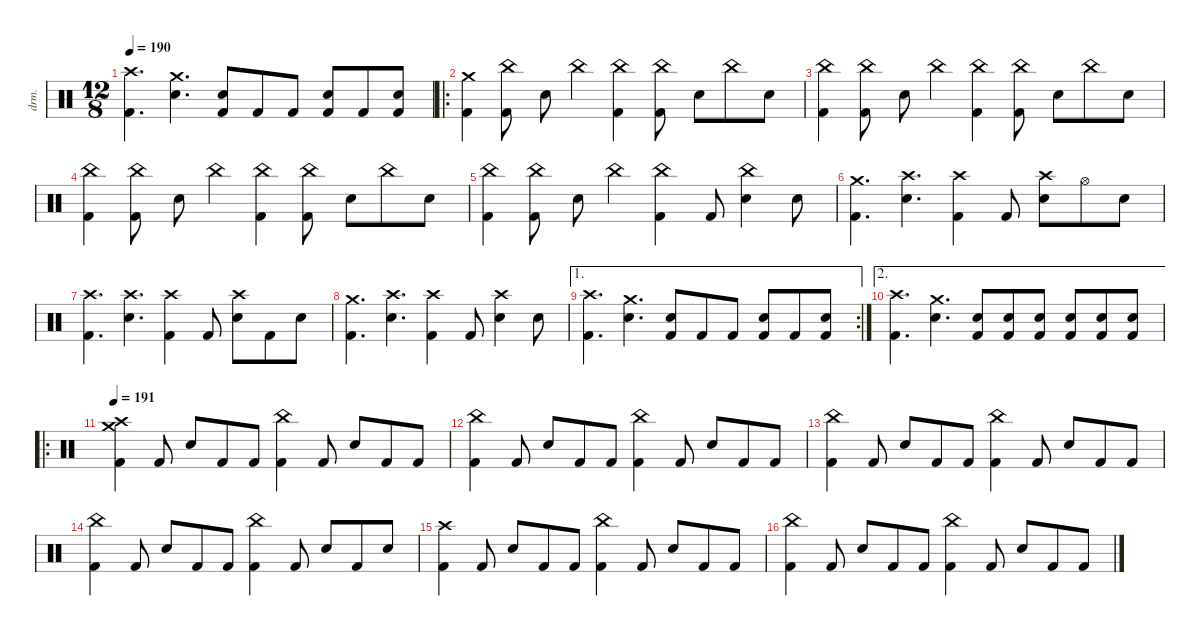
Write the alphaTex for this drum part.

\defaultSystemsLayout 4
\hideDynamics
\bracketExtendMode nobrackets
\otherSystemsTrackNameOrientation horizontal
\track ("Drums" "drm.") {defaultSystemsLayout 4 instrument percussion}
\staff {score}
\articulation defaults
\ts (12 8)
\tempo 190
\clef neutral
\ks c
("Crash high (hit)" "Kick (hit) 2").4{d dy f beam Down} ("Crash medium (hit)" "Snare (hit) 2").4{d beam Down} ("Snare (hit) 2" "Kick (hit) 2").8{beam Up} "Kick (hit) 2".8{beam Up} "Kick (hit) 2".8{beam Up} ("Snare (hit) 2" "Kick (hit) 2").8{beam Up} "Kick (hit) 2".8{beam Up} ("Snare (hit) 2" "Kick (hit) 2").8{beam Up} |
\ro
("Crash medium (hit)" "Kick (hit) 2").4{beam Down} ("China (hit)" "Kick (hit) 2").8{beam Down} "Snare (hit) 2".8{beam Down} "China (hit)".4{beam Down} ("China (hit)" "Kick (hit) 2").4{beam Down} ("China (hit)" "Kick (hit) 2").8{beam Down} "Snare (hit) 2".8{beam Down} "China (hit)".8{beam Down} "Snare (hit) 2".8{beam Down} |
("China (hit)" "Kick (hit) 2").4{beam Down} ("China (hit)" "Kick (hit) 2").8{beam Down} "Snare (hit) 2".8{beam Down} "China (hit)".4{beam Down} ("China (hit)" "Kick (hit) 2").4{beam Down} ("China (hit)" "Kick (hit) 2").8{beam Down} "Snare (hit) 2".8{beam Down} "China (hit)".8{beam Down} "Snare (hit) 2".8{beam Down} |
("China (hit)" "Kick (hit) 2").4{beam Down} ("China (hit)" "Kick (hit) 2").8{beam Down} "Snare (hit) 2".8{beam Down} "China (hit)".4{beam Down} ("China (hit)" "Kick (hit) 2").4{beam Down} ("China (hit)" "Kick (hit) 2").8{beam Down} "Snare (hit) 2".8{beam Down} "China (hit)".8{beam Down} "Snare (hit) 2".8{beam Down} |
("China (hit)" "Kick (hit) 2").4{beam Down} ("China (hit)" "Kick (hit) 2").8{beam Down} "Snare (hit) 2".8{beam Down} "China (hit)".4{beam Down} ("China (hit)" "Kick (hit) 2").4{beam Down} "Kick (hit) 2".8{beam Up} ("China (hit)" "Snare (hit) 2").4{beam Down} "Snare (hit) 2".8{beam Down} |
("Crash medium (hit)" "Kick (hit) 2").4{d beam Down} ("Crash high (hit)" "Snare (hit) 2").4{d beam Down} ("Crash high (hit)" "Kick (hit) 2").4{beam Down} "Kick (hit) 2".8{beam Up} ("Crash high (hit)" "Snare (hit) 2").8{beam Down} "Hi-Hat (open)".8{beam Down} "Snare (hit) 2".8{beam Down} |
("Crash high (hit)" "Kick (hit) 2").4{d beam Down} ("Crash high (hit)" "Snare (hit) 2").4{d beam Down} ("Crash high (hit)" "Kick (hit) 2").4{beam Down} "Kick (hit) 2".8{beam Up} ("Crash high (hit)" "Snare (hit) 2").8{beam Down} "Kick (hit) 2".8{beam Down} "Snare (hit) 2".8{beam Down} |
("Crash medium (hit)" "Kick (hit) 2").4{d beam Down} ("Crash high (hit)" "Snare (hit) 2").4{d beam Down} ("Crash high (hit)" "Kick (hit) 2").4{beam Down} "Kick (hit) 2".8{beam Up} ("Crash high (hit)" "Snare (hit) 2").4{beam Down} "Snare (hit) 2".8{beam Down} |
\ae 1
\rc 2
("Crash high (hit)" "Kick (hit) 2").4{d beam Down} ("Crash medium (hit)" "Snare (hit) 2").4{d beam Down} ("Snare (hit) 2" "Kick (hit) 2").8{beam Up} "Kick (hit) 2".8{beam Up} "Kick (hit) 2".8{beam Up} ("Snare (hit) 2" "Kick (hit) 2").8{beam Up} "Kick (hit) 2".8{beam Up} ("Snare (hit) 2" "Kick (hit) 2").8{beam Up} |
\ae 2
("Crash high (hit)" "Kick (hit) 2").4{d beam Down} ("Crash medium (hit)" "Snare (hit) 2").4{d beam Down} ("Snare (hit) 2" "Kick (hit) 2").8{beam Up} ("Snare (hit) 2" "Kick (hit) 2").8{beam Up} ("Snare (hit) 2" "Kick (hit) 2").8{beam Up} ("Snare (hit) 2" "Kick (hit) 2").8{beam Up} ("Snare (hit) 2" "Kick (hit) 2").8{beam Up} ("Snare (hit) 2" "Kick (hit) 2").8{beam Up} |
\ro
\tempo 191
("Crash medium (hit)" "Crash high (hit)" "Kick (hit) 2").4{beam Down} "Kick (hit) 2".8{beam Up} "Snare (hit) 2".8{beam Up} "Kick (hit) 2".8{beam Up} "Kick (hit) 2".8{beam Up} ("China (hit)" "Kick (hit) 2").4{beam Down} "Kick (hit) 2".8{beam Up} "Snare (hit) 2".8{beam Up} "Kick (hit) 2".8{beam Up} "Kick (hit) 2".8{beam Up} |
("China (hit)" "Kick (hit) 2").4{beam Down} "Kick (hit) 2".8{beam Up} "Snare (hit) 2".8{beam Up} "Kick (hit) 2".8{beam Up} "Kick (hit) 2".8{beam Up} ("China (hit)" "Kick (hit) 2").4{beam Down} "Kick (hit) 2".8{beam Up} "Snare (hit) 2".8{beam Up} "Kick (hit) 2".8{beam Up} "Kick (hit) 2".8{beam Up} |
("China (hit)" "Kick (hit) 2").4{beam Down} "Kick (hit) 2".8{beam Up} "Snare (hit) 2".8{beam Up} "Kick (hit) 2".8{beam Up} "Kick (hit) 2".8{beam Up} ("China (hit)" "Kick (hit) 2").4{beam Down} "Kick (hit) 2".8{beam Up} "Snare (hit) 2".8{beam Up} "Kick (hit) 2".8{beam Up} "Kick (hit) 2".8{beam Up} |
("China (hit)" "Kick (hit) 2").4{beam Down} "Kick (hit) 2".8{beam Up} "Snare (hit) 2".8{beam Up} "Kick (hit) 2".8{beam Up} "Kick (hit) 2".8{beam Up} ("China (hit)" "Kick (hit) 2").4{beam Down} "Kick (hit) 2".8{beam Up} "Snare (hit) 2".8{beam Up} "Kick (hit) 2".8{beam Up} "Snare (hit) 2".8{beam Up} |
("Crash high (hit)" "Kick (hit) 2").4{beam Down} "Kick (hit) 2".8{beam Up} "Snare (hit) 2".8{beam Up} "Kick (hit) 2".8{beam Up} "Kick (hit) 2".8{beam Up} ("China (hit)" "Kick (hit) 2").4{beam Down} "Kick (hit) 2".8{beam Up} "Snare (hit) 2".8{beam Up} "Kick (hit) 2".8{beam Up} "Kick (hit) 2".8{beam Up} |
("China (hit)" "Kick (hit) 2").4{beam Down} "Kick (hit) 2".8{beam Up} "Snare (hit) 2".8{beam Up} "Kick (hit) 2".8{beam Up} "Kick (hit) 2".8{beam Up} ("China (hit)" "Kick (hit) 2").4{beam Down} "Kick (hit) 2".8{beam Up} "Snare (hit) 2".8{beam Up} "Kick (hit) 2".8{beam Up} "Kick (hit) 2".8{beam Up}
